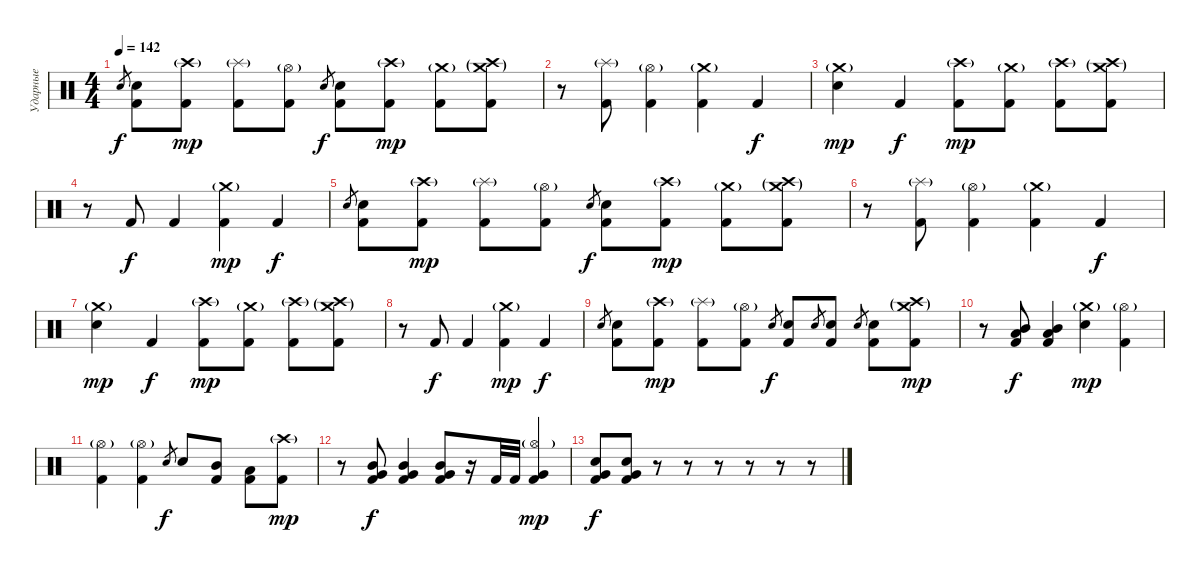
\track ("Ударные" "Ударные") {instrument percussion}
\staff {score}
\articulation defaults
\ts (4 4)
\tempo 142
\clef neutral
\ks c "Electric Snare (hit)".8{gr dy f}
("Electric Snare (hit)" "Kick (hit) 2").8 ("Crash high (hit)"{g} "Kick (hit) 2").8{dy mp} ("Splash (hit)"{g} "Kick (hit) 2").8 ("Hi-Hat (open)"{g} "Kick (hit) 2").8 "Electric Snare (hit)".8{gr dy f} ("Electric Snare (hit)" "Kick (hit) 2").8 ("Crash high (hit)"{g} "Kick (hit) 2").8{dy mp} ("Crash medium (hit)"{g} "Kick (hit) 2").8 ("Crash high (hit)"{g} "Crash medium (hit)"{g} "Kick (hit) 2").8 |
r.8 ("Splash (hit)"{g} "Kick (hit) 2").8 ("Hi-Hat (open)"{g} "Kick (hit) 2").4 ("Crash medium (hit)"{g} "Kick (hit) 2").4 "Kick (hit) 2".4{dy f} |
("Crash medium (hit)"{g} "Electric Snare (hit)").4{dy mp} "Kick (hit) 2".4{dy f} ("Crash high (hit)"{g} "Kick (hit) 2").8{dy mp} ("Crash medium (hit)"{g} "Kick (hit) 2").8 ("Crash high (hit)"{g} "Kick (hit) 2").8 ("Crash high (hit)"{g} "Crash medium (hit)"{g} "Kick (hit) 2").8 |
r.8 "Kick (hit) 2".8{dy f} "Kick (hit) 2".4 ("Crash medium (hit)"{g} "Kick (hit) 2").4{dy mp} "Kick (hit) 2".4{dy f} |
"Electric Snare (hit)".8{gr} ("Electric Snare (hit)" "Kick (hit) 2").8 ("Crash high (hit)"{g} "Kick (hit) 2").8{dy mp} ("Splash (hit)"{g} "Kick (hit) 2").8 ("Hi-Hat (open)"{g} "Kick (hit) 2").8 "Electric Snare (hit)".8{gr dy f} ("Electric Snare (hit)" "Kick (hit) 2").8 ("Crash high (hit)"{g} "Kick (hit) 2").8{dy mp} ("Crash medium (hit)"{g} "Kick (hit) 2").8 ("Crash high (hit)"{g} "Crash medium (hit)"{g} "Kick (hit) 2").8 |
r.8 ("Splash (hit)"{g} "Kick (hit) 2").8 ("Hi-Hat (open)"{g} "Kick (hit) 2").4 ("Crash medium (hit)"{g} "Kick (hit) 2").4 "Kick (hit) 2".4{dy f} |
("Crash medium (hit)"{g} "Electric Snare (hit)").4{dy mp} "Kick (hit) 2".4{dy f} ("Crash high (hit)"{g} "Kick (hit) 2").8{dy mp} ("Crash medium (hit)"{g} "Kick (hit) 2").8 ("Crash high (hit)"{g} "Kick (hit) 2").8 ("Crash high (hit)"{g} "Crash medium (hit)"{g} "Kick (hit) 2").8 |
r.8 "Kick (hit) 2".8{dy f} "Kick (hit) 2".4 ("Crash medium (hit)"{g} "Kick (hit) 2").4{dy mp} "Kick (hit) 2".4{dy f} |
"Electric Snare (hit)".8{gr} ("Electric Snare (hit)" "Kick (hit) 2").8 ("Crash high (hit)"{g} "Kick (hit) 2").8{dy mp} ("Splash (hit)"{g} "Kick (hit) 2").8 ("Hi-Hat (open)"{g} "Kick (hit) 2").8 "Electric Snare (hit)".8{gr dy f} ("Electric Snare (hit)" "Kick (hit) 2").8 "Electric Snare (hit)".8{gr} ("Electric Snare (hit)" "Kick (hit) 2").8 "Electric Snare (hit)".8{gr} ("Electric Snare (hit)" "Kick (hit) 2").8 ("Crash high (hit)"{g} "Crash medium (hit)"{g} "Kick (hit) 2").8{dy mp} |
r.8 ("Low Tom (hit)" "Mid Tom (hit)" "Kick (hit) 2").8{dy f} ("Low Tom (hit)" "Mid Tom (hit)" "Kick (hit) 2").4 ("Crash medium (hit)"{g} "Electric Snare (hit)").4{dy mp} ("Hi-Hat (open)"{g} "Kick (hit) 2").4 |
("Hi-Hat (open)"{g} "Kick (hit) 2").4 ("Hi-Hat (open)"{g} "Kick (hit) 2").4 "Electric Snare (hit)".8{gr dy f} "Electric Snare (hit)".8 ("Mid Tom (hit)" "Kick (hit) 2").8 ("Low Tom (hit)" "Kick (hit) 2").8 ("Crash high (hit)"{g} "Kick (hit) 2").8{dy mp} |
r.8 ("Very Low Tom (hit)" "Mid Tom (hit)" "Kick (hit) 2").8{dy f} ("Very Low Tom (hit)" "Mid Tom (hit)" "Kick (hit) 2").4 ("Very Low Tom (hit)" "Mid Tom (hit)" "Kick (hit) 2").8 r.16 "Kick (hit) 2".32 "Kick (hit) 2".32 ("Hi-Hat (open)"{g} "Very Low Tom (hit)" "Kick (hit) 2").4{dy mp} |
("Very Low Tom (hit)" "Electric Snare (hit)" "Kick (hit) 2").8{dy f} ("Very Low Tom (hit)" "Electric Snare (hit)" "Kick (hit) 2").8 r.8 r.8 r.8 r.8 r.8 r.8
